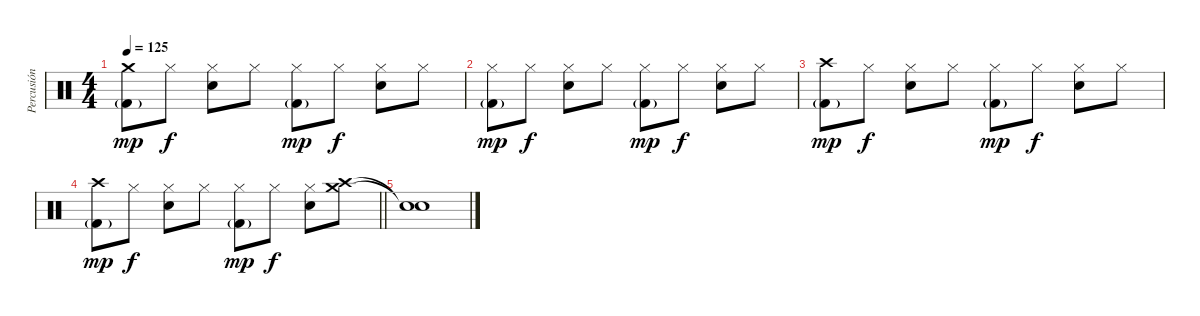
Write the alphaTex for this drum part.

\track ("Percusión" "Percusión") {instrument percussion}
\staff {score}
\articulation defaults
\ts (4 4)
\tempo 125
\clef neutral
\ks c
("Crash medium (hit)" "Kick (hit) 2"{g}).8{dy mp} "Hi-Hat (closed)".8{dy f} ("Hi-Hat (closed)" "Snare (hit) 2").8 "Hi-Hat (closed)".8 ("Hi-Hat (closed)" "Kick (hit) 2"{g}).8{dy mp} "Hi-Hat (closed)".8{dy f} ("Hi-Hat (closed)" "Snare (hit) 2").8 "Hi-Hat (closed)".8 |
("Hi-Hat (closed)" "Kick (hit) 2"{g}).8{dy mp} "Hi-Hat (closed)".8{dy f} ("Hi-Hat (closed)" "Snare (hit) 2").8 "Hi-Hat (closed)".8 ("Hi-Hat (closed)" "Kick (hit) 2"{g}).8{dy mp} "Hi-Hat (closed)".8{dy f} ("Hi-Hat (closed)" "Snare (hit) 2").8 "Hi-Hat (closed)".8 |
("Crash high (hit)" "Kick (hit) 2"{g}).8{dy mp} "Hi-Hat (closed)".8{dy f} ("Hi-Hat (closed)" "Snare (hit) 2").8 "Hi-Hat (closed)".8 ("Hi-Hat (closed)" "Kick (hit) 2"{g}).8{dy mp} "Hi-Hat (closed)".8{dy f} ("Hi-Hat (closed)" "Snare (hit) 2").8 "Hi-Hat (closed)".8 |
\barLineRight lightlight
("Crash high (hit)" "Kick (hit) 2"{g}).8{dy mp} "Hi-Hat (closed)".8{dy f} ("Hi-Hat (closed)" "Snare (hit) 2").8 "Hi-Hat (closed)".8 ("Hi-Hat (closed)" "Kick (hit) 2"{g}).8{dy mp} "Hi-Hat (closed)".8{dy f} ("Hi-Hat (closed)" "Snare (hit) 2").8 ("Crash high (hit)" "Crash medium (hit)").8 |
("Snare (hit)"{t} "Snare (hit)"{t}).1
